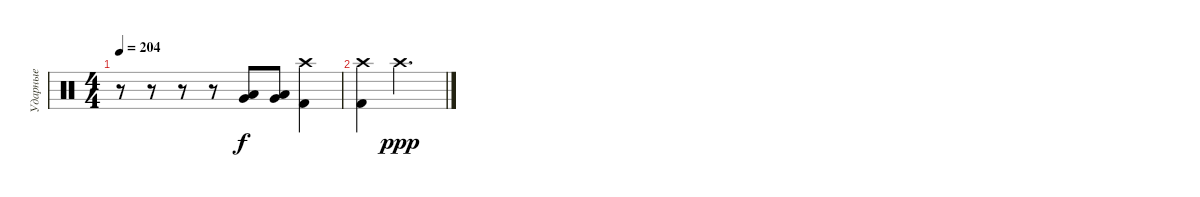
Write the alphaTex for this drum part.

\track ("Ударные" "Ударные") {instrument percussion}
\staff {score}
\articulation defaults
\ts (4 4)
\tempo 204
\clef neutral
\ks c
r.8{dy ppp} r.8 r.8 r.8 ("Low Tom (hit)" "Very Low Tom (hit)").8{dy f} ("Low Tom (hit)" "Very Low Tom (hit)").8 ("Crash high (hit)" "Kick (hit) 2").4 |
("Crash high (hit)" "Kick (hit) 2").4 "Crash high (hit)".2{d dy ppp}
